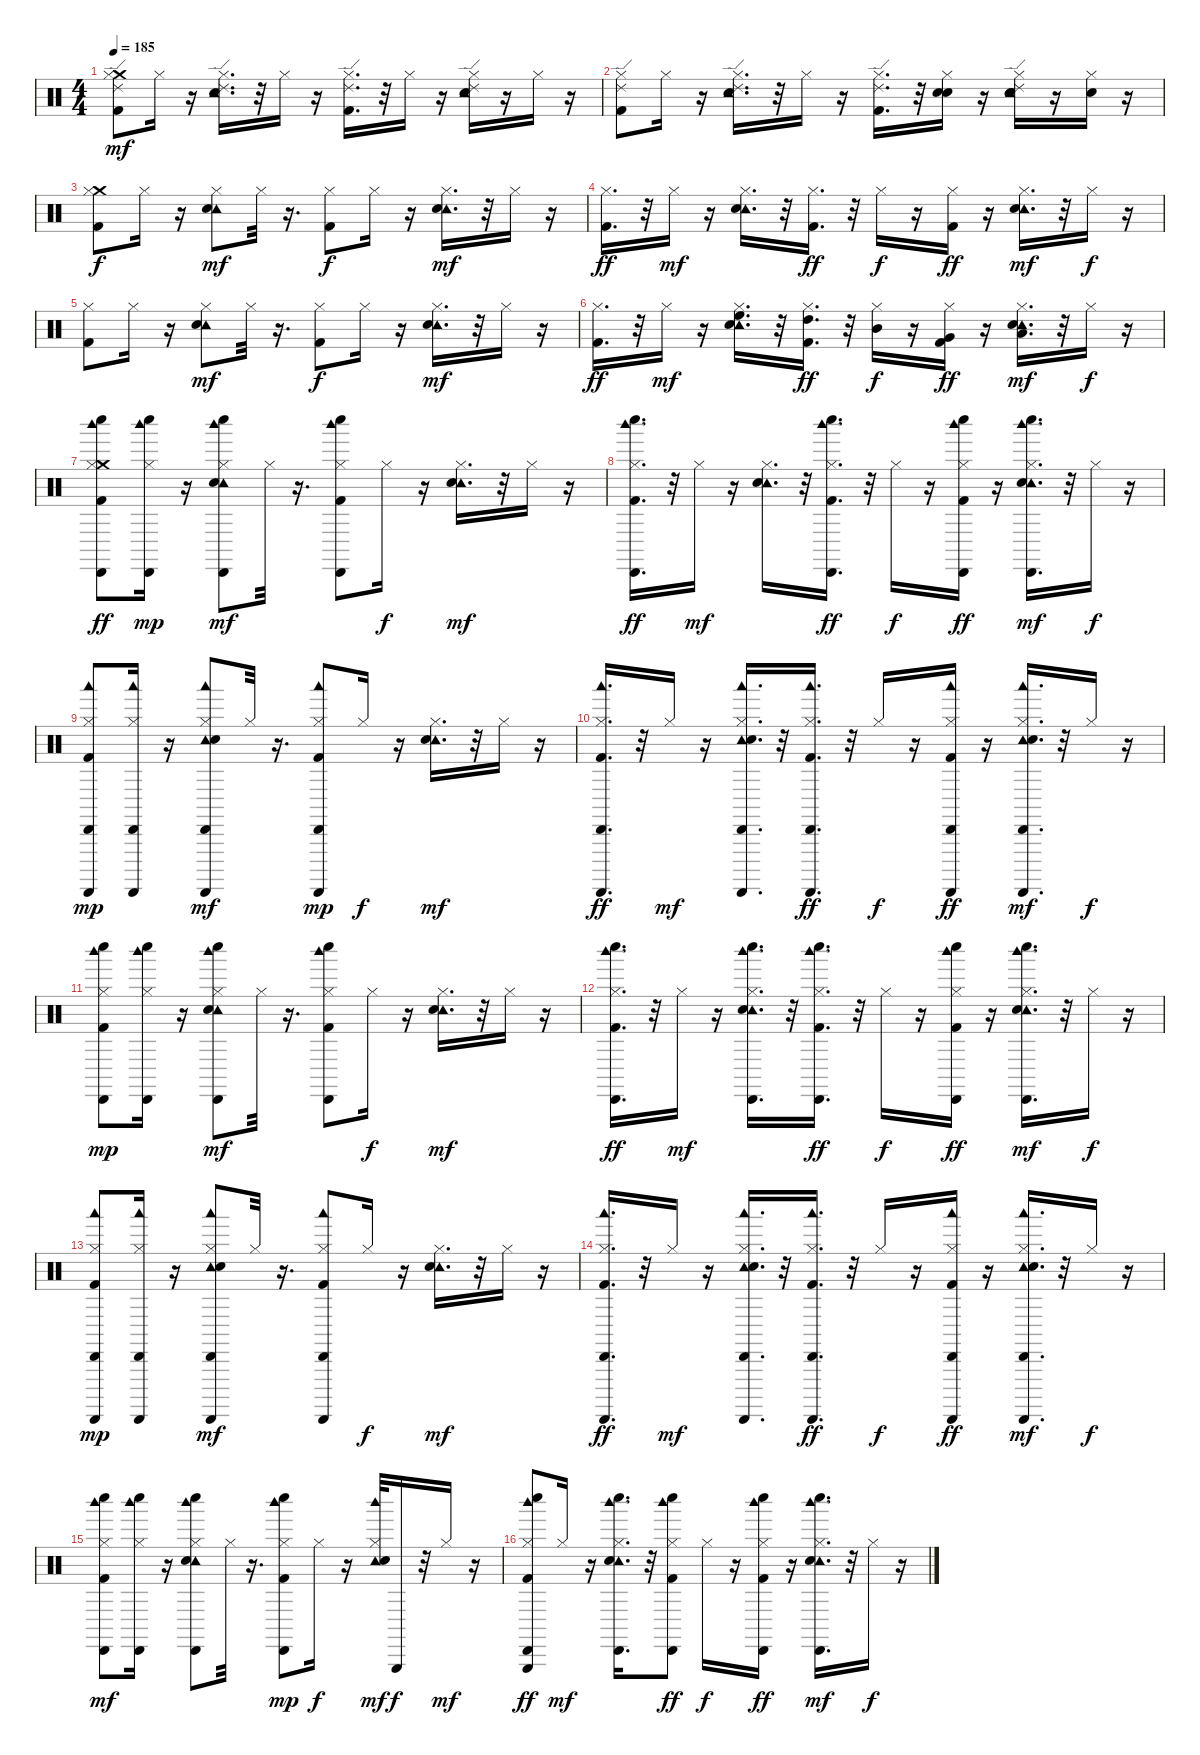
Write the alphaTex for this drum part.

\track "" {instrument percussion}
\staff {score}
\articulation defaults
\ts (4 4)
\tempo 185
\clef neutral
\ks c
("Crash medium (hit)" "Ride (edge) 2" "Hi-Hat (closed)" "Kick (hit) 2").8{dy mf} "Hi-Hat (closed)".16 r.16 ("Ride (edge) 2" "Hi-Hat (closed)" "Tambourine (hit)" "Snare (hit) 2").16{d} r.32 "Hi-Hat (closed)".16 r.16 ("Ride (edge) 2" "Hi-Hat (closed)" "Kick (hit) 2").16{d} r.32 "Hi-Hat (closed)".16 r.16 ("Ride (edge) 2" "Hi-Hat (closed)" "Tambourine (hit)" "Snare (hit) 2").16 r.16 "Hi-Hat (closed)".16 r.16 |
("Ride (edge) 2" "Hi-Hat (closed)" "Kick (hit) 2").8 "Hi-Hat (closed)".16 r.16 ("Ride (edge) 2" "Hi-Hat (closed)" "Tambourine (hit)" "Snare (hit) 2").16{d} r.32 "Hi-Hat (closed)".16 r.16 ("Ride (edge) 2" "Hi-Hat (closed)" "Kick (hit) 2").16{d} r.32 ("Snare (hit) 2" "Electric Snare (hit)" "Hi-Hat (closed)").16 r.16 ("Snare (hit) 2" "Ride (edge) 2" "Hi-Hat (closed)" "Tambourine (hit)" "Snare (hit) 2").16 r.16 ("Snare (hit) 2" "Hi-Hat (closed)").16 r.16 |
("Crash medium (hit)" "Hi-Hat (closed)" "Kick (hit) 2").8{dy f} "Hi-Hat (closed)".16 r.16 ("Tambourine (hit)" "Hi-Hat (closed)" "Snare (hit) 2").8{dy mf} "Hi-Hat (closed)".32 r.16{d} ("Hi-Hat (closed)" "Kick (hit) 2").8{dy f} "Hi-Hat (closed)".16 r.16 ("Tambourine (hit)" "Hi-Hat (closed)" "Snare (hit) 2").16{d dy mf} r.32 "Hi-Hat (closed)".16 r.16 |
("Hi-Hat (closed)" "Kick (hit) 2").16{d dy ff} r.32 "Hi-Hat (closed)".16{dy mf} r.16 ("Tambourine (hit)" "Hi-Hat (closed)" "Snare (hit) 2").16{d} r.32 ("Hi-Hat (closed)" "Kick (hit) 2").16{d dy ff} r.32 "Hi-Hat (closed)".16{dy f} r.16 ("Hi-Hat (closed)" "Kick (hit) 2").16{dy ff} r.16 ("Tambourine (hit)" "Hi-Hat (closed)" "Snare (hit) 2").16{d dy mf} r.32 "Hi-Hat (closed)".16{dy f} r.16 |
("Hi-Hat (closed)" "Kick (hit) 2").8 "Hi-Hat (closed)".16 r.16 ("Tambourine (hit)" "Hi-Hat (closed)" "Snare (hit) 2").8{dy mf} "Hi-Hat (closed)".32 r.16{d} ("Hi-Hat (closed)" "Kick (hit) 2").8{dy f} "Hi-Hat (closed)".16 r.16 ("Tambourine (hit)" "Hi-Hat (closed)" "Snare (hit) 2").16{d dy mf} r.32 "Hi-Hat (closed)".16 r.16 |
("Hi-Hat (closed)" "Kick (hit) 2").16{d dy ff} r.32 "Hi-Hat (closed)".16{dy mf} r.16 ("High Floor Tom (hit)" "Tambourine (hit)" "Hi-Hat (closed)" "Snare (hit) 2").16{d} r.32 ("High Tom (hit)" "Hi-Hat (closed)" "Kick (hit) 2").16{d dy ff} r.32 ("Mid Tom (hit)" "Hi-Hat (closed)").16{dy f} r.16 ("Very Low Tom (hit)" "Hi-Hat (closed)" "Kick (hit) 2").16{dy ff} r.16 ("Low Floor Tom (hit)" "Tambourine (hit)" "Hi-Hat (closed)" "Snare (hit) 2").16{d dy mf} r.32 "Hi-Hat (closed)".16{dy f} r.16 |
("Whistle low (hit)" "Cabasa (hit)" "Woodblock high (hit)" "Crash medium (hit)" "Hi-Hat (closed)" "Kick (hit) 2").8{dy ff} ("Cabasa (hit)" "Whistle low (hit)" "Woodblock high (hit)" "Hi-Hat (closed)").16{dy mp} r.16 ("Cabasa (hit)" "Whistle low (hit)" "Woodblock high (hit)" "Tambourine (hit)" "Hi-Hat (closed)" "Snare (hit) 2").8{dy mf} "Hi-Hat (closed)".32 r.16{d} ("Cabasa (hit)" "Whistle low (hit)" "Woodblock high (hit)" "Hi-Hat (closed)" "Kick (hit) 2").8 "Hi-Hat (closed)".16{dy f} r.16 ("Tambourine (hit)" "Hi-Hat (closed)" "Snare (hit) 2").16{d dy mf} r.32 "Hi-Hat (closed)".16 r.16 |
("Cabasa (hit)" "Whistle low (hit)" "Woodblock high (hit)" "Hi-Hat (closed)" "Kick (hit) 2").16{d dy ff} r.32 "Hi-Hat (closed)".16{dy mf} r.16 ("Tambourine (hit)" "Hi-Hat (closed)" "Snare (hit) 2").16{d} r.32 ("Whistle low (hit)" "Cabasa (hit)" "Woodblock high (hit)" "Hi-Hat (closed)" "Kick (hit) 2").16{d dy ff} r.32 "Hi-Hat (closed)".16{dy f} r.16 ("Cabasa (hit)" "Whistle low (hit)" "Woodblock high (hit)" "Hi-Hat (closed)" "Kick (hit) 2").16{dy ff} r.16 ("Cabasa (hit)" "Whistle low (hit)" "Woodblock high (hit)" "Tambourine (hit)" "Hi-Hat (closed)" "Snare (hit) 2").16{d dy mf} r.32 "Hi-Hat (closed)".16{dy f} r.16 |
("Cabasa (hit)" "Woodblock low (hit)" "Guiro (scrap-return)" "Hi-Hat (closed)" "Kick (hit) 2").8{dy mp} ("Cabasa (hit)" "Guiro (scrap-return)" "Woodblock low (hit)" "Hi-Hat (closed)").16 r.16 ("Cabasa (hit)" "Woodblock low (hit)" "Guiro (scrap-return)" "Tambourine (hit)" "Hi-Hat (closed)" "Snare (hit) 2").8{dy mf} "Hi-Hat (closed)".32 r.16{d} ("Woodblock low (hit)" "Cabasa (hit)" "Guiro (scrap-return)" "Hi-Hat (closed)" "Kick (hit) 2").8{dy mp} "Hi-Hat (closed)".16{dy f} r.16 ("Tambourine (hit)" "Hi-Hat (closed)" "Snare (hit) 2").16{d dy mf} r.32 "Hi-Hat (closed)".16 r.16 |
("Cabasa (hit)" "Guiro (scrap-return)" "Woodblock low (hit)" "Hi-Hat (closed)" "Kick (hit) 2").16{d dy ff} r.32 "Hi-Hat (closed)".16{dy mf} r.16 ("Guiro (scrap-return)" "Cabasa (hit)" "Woodblock low (hit)" "Tambourine (hit)" "Hi-Hat (closed)" "Snare (hit) 2").16{d} r.32 ("Cabasa (hit)" "Woodblock low (hit)" "Guiro (scrap-return)" "Hi-Hat (closed)" "Kick (hit) 2").16{d dy ff} r.32 "Hi-Hat (closed)".16{dy f} r.16 ("Cabasa (hit)" "Woodblock low (hit)" "Guiro (scrap-return)" "Hi-Hat (closed)" "Kick (hit) 2").16{dy ff} r.16 ("Woodblock low (hit)" "Cabasa (hit)" "Guiro (scrap-return)" "Tambourine (hit)" "Hi-Hat (closed)" "Snare (hit) 2").16{d dy mf} r.32 "Hi-Hat (closed)".16{dy f} r.16 |
("Whistle low (hit)" "Woodblock high (hit)" "Cabasa (hit)" "Hi-Hat (closed)" "Kick (hit) 2").8{dy mp} ("Cabasa (hit)" "Woodblock high (hit)" "Whistle low (hit)" "Hi-Hat (closed)").16 r.16 ("Whistle low (hit)" "Cabasa (hit)" "Woodblock high (hit)" "Tambourine (hit)" "Hi-Hat (closed)" "Snare (hit) 2").8{dy mf} "Hi-Hat (closed)".32 r.16{d} ("Cabasa (hit)" "Woodblock high (hit)" "Whistle low (hit)" "Hi-Hat (closed)" "Kick (hit) 2").8 "Hi-Hat (closed)".16{dy f} r.16 ("Tambourine (hit)" "Hi-Hat (closed)" "Snare (hit) 2").16{d dy mf} r.32 "Hi-Hat (closed)".16 r.16 |
("Cabasa (hit)" "Whistle low (hit)" "Woodblock high (hit)" "Hi-Hat (closed)" "Kick (hit) 2").16{d dy ff} r.32 "Hi-Hat (closed)".16{dy mf} r.16 ("Whistle low (hit)" "Cabasa (hit)" "Woodblock high (hit)" "Tambourine (hit)" "Hi-Hat (closed)" "Snare (hit) 2").16{d} r.32 ("Whistle low (hit)" "Cabasa (hit)" "Woodblock high (hit)" "Hi-Hat (closed)" "Kick (hit) 2").16{d dy ff} r.32 "Hi-Hat (closed)".16{dy f} r.16 ("Cabasa (hit)" "Whistle low (hit)" "Woodblock high (hit)" "Hi-Hat (closed)" "Kick (hit) 2").16{dy ff} r.16 ("Cabasa (hit)" "Whistle low (hit)" "Woodblock high (hit)" "Tambourine (hit)" "Hi-Hat (closed)" "Snare (hit) 2").16{d dy mf} r.32 "Hi-Hat (closed)".16{dy f} r.16 |
("Cabasa (hit)" "Woodblock low (hit)" "Guiro (scrap-return)" "Hi-Hat (closed)" "Kick (hit) 2").8{dy mp} ("Woodblock low (hit)" "Cabasa (hit)" "Guiro (scrap-return)" "Hi-Hat (closed)").16 r.16 ("Woodblock low (hit)" "Guiro (scrap-return)" "Cabasa (hit)" "Tambourine (hit)" "Hi-Hat (closed)" "Snare (hit) 2").8{dy mf} "Hi-Hat (closed)".32 r.16{d} ("Woodblock low (hit)" "Guiro (scrap-return)" "Cabasa (hit)" "Hi-Hat (closed)" "Kick (hit) 2").8 "Hi-Hat (closed)".16{dy f} r.16 ("Tambourine (hit)" "Hi-Hat (closed)" "Snare (hit) 2").16{d dy mf} r.32 "Hi-Hat (closed)".16 r.16 |
("Cabasa (hit)" "Woodblock low (hit)" "Guiro (scrap-return)" "Hi-Hat (closed)" "Kick (hit) 2").16{d dy ff} r.32 "Hi-Hat (closed)".16{dy mf} r.16 ("Cabasa (hit)" "Woodblock low (hit)" "Guiro (scrap-return)" "Tambourine (hit)" "Hi-Hat (closed)" "Snare (hit) 2").16{d} r.32 ("Cabasa (hit)" "Woodblock low (hit)" "Guiro (scrap-return)" "Hi-Hat (closed)" "Kick (hit) 2").16{d dy ff} r.32 "Hi-Hat (closed)".16{dy f} r.16 ("Cabasa (hit)" "Woodblock low (hit)" "Guiro (scrap-return)" "Hi-Hat (closed)" "Kick (hit) 2").16{dy ff} r.16 ("Woodblock low (hit)" "Cabasa (hit)" "Guiro (scrap-return)" "Tambourine (hit)" "Hi-Hat (closed)" "Snare (hit) 2").16{d dy mf} r.32 "Hi-Hat (closed)".16{dy f} r.16 |
("Whistle low (hit)" "Cabasa (hit)" "Woodblock high (hit)" "Hi-Hat (closed)" "Kick (hit) 2").8{dy mf} ("Whistle low (hit)" "Cabasa (hit)" "Woodblock high (hit)" "Hi-Hat (closed)").16 r.16 ("Cabasa (hit)" "Whistle low (hit)" "Woodblock high (hit)" "Tambourine (hit)" "Hi-Hat (closed)" "Snare (hit) 2").8 "Hi-Hat (closed)".32 r.16{d} ("Woodblock high (hit)" "Whistle low (hit)" "Cabasa (hit)" "Hi-Hat (closed)" "Kick (hit) 2" "Woodblock high (hit)").8{dy mp} "Hi-Hat (closed)".16{dy f} r.16 ("Tambourine (hit)" "Hi-Hat (closed)" "Snare (hit) 2" "Woodblock high (hit)").32{dy mf} "Triangle (hit)".16{dy f} r.32 "Hi-Hat (closed)".16{dy mf} r.16 |
("Cabasa (hit)" "Whistle low (hit)" "Woodblock high (hit)" "Hi-Hat (closed)" "Kick (hit) 2" "Triangle (hit)").8{dy ff} "Hi-Hat (closed)".16{dy mf} r.16 ("Cabasa (hit)" "Whistle low (hit)" "Woodblock high (hit)" "Tambourine (hit)" "Hi-Hat (closed)" "Snare (hit) 2").16{d} r.32 ("Whistle low (hit)" "Cabasa (hit)" "Woodblock high (hit)" "Hi-Hat (closed)" "Kick (hit) 2").8{dy ff} "Hi-Hat (closed)".16{dy f} r.16 ("Cabasa (hit)" "Whistle low (hit)" "Woodblock high (hit)" "Hi-Hat (closed)" "Kick (hit) 2").16{dy ff} r.16 ("Whistle low (hit)" "Cabasa (hit)" "Woodblock high (hit)" "Tambourine (hit)" "Hi-Hat (closed)" "Snare (hit) 2").16{d dy mf} r.32 "Hi-Hat (closed)".16{dy f} r.16
